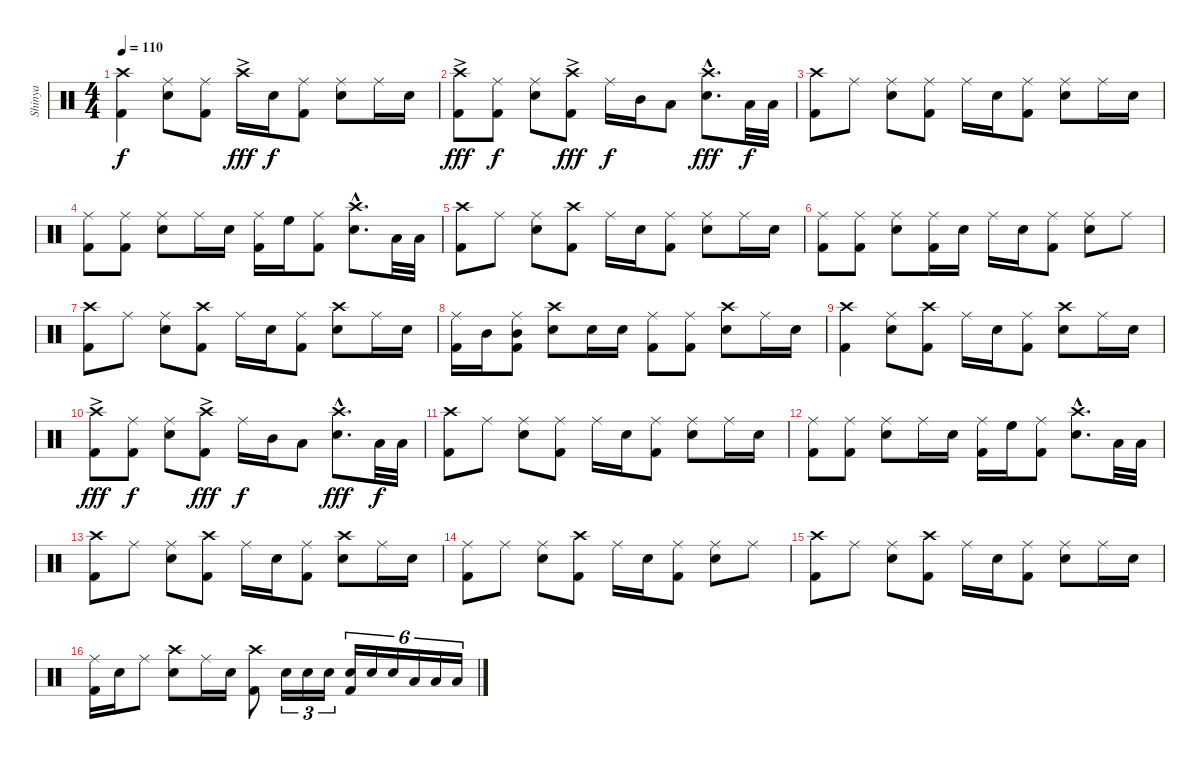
\track ("Shinya" "Shinya") {instrument percussion}
\staff {score}
\articulation defaults
\ts (4 4)
\tempo 110
\clef neutral
\ks c
("Crash high (hit)" "Kick (hit) 2").4{dy f} ("Ride (middle)" "Snare (hit) 2").8 ("Ride (middle)" "Kick (hit) 2").8 "Crash high (hit)"{ac}.16{dy fff} "Snare (hit) 2".16{dy f} ("Ride (middle)" "Kick (hit) 2").8 ("Ride (middle)" "Snare (hit) 2").8 "Ride (middle)".16 "Snare (hit) 2".16 |
("Crash high (hit)"{ac} "Kick (hit) 2").8{dy fff} ("Ride (middle)" "Kick (hit) 2").8{dy f} ("Ride (middle)" "Snare (hit) 2").8 ("Crash high (hit)"{ac} "Kick (hit) 2").8{dy fff} "Ride (middle)".16{dy f} "Mid Tom (hit)".16 "Low Tom (hit)".8 ("Crash high (hit)"{hac} "Snare (hit) 2"{hac}).8{d dy fff} "Low Tom (hit)".32{dy f} "Low Tom (hit)".32 |
("Crash high (hit)" "Kick (hit) 2").8 "Ride (middle)".8 ("Ride (middle)" "Snare (hit) 2").8 ("Ride (middle)" "Kick (hit) 2").8 "Ride (middle)".16 "Snare (hit) 2".16 ("Ride (middle)" "Kick (hit) 2").8 ("Ride (middle)" "Snare (hit) 2").8 "Ride (middle)".16 "Snare (hit) 2".16 |
("Ride (middle)" "Kick (hit) 2").8 ("Ride (middle)" "Kick (hit) 2").8 ("Ride (middle)" "Snare (hit) 2").8 "Ride (middle)".16 "Snare (hit) 2".16 ("Ride (middle)" "Kick (hit) 2").16 "High Floor Tom (hit)".16 ("Ride (middle)" "Kick (hit) 2").8 ("Crash high (hit)"{hac} "Snare (hit) 2"{hac}).8{d} "Low Tom (hit)".32 "Low Tom (hit)".32 |
("Crash high (hit)" "Kick (hit) 2").8 "Ride (middle)".8 ("Ride (middle)" "Snare (hit) 2").8 ("Crash high (hit)" "Kick (hit) 2").8 "Ride (middle)".16 "Snare (hit) 2".16 ("Ride (middle)" "Kick (hit) 2").8 ("Ride (middle)" "Snare (hit) 2").8 "Ride (middle)".16 "Snare (hit) 2".16 |
("Ride (middle)" "Kick (hit) 2").8 ("Ride (middle)" "Kick (hit) 2").8 ("Ride (middle)" "Snare (hit) 2").8 ("Ride (middle)" "Kick (hit) 2").16 "Snare (hit) 2".16 "Ride (middle)".16 "Snare (hit) 2".16 ("Ride (middle)" "Kick (hit) 2").8 ("Ride (middle)" "Snare (hit) 2").8 "Ride (middle)".8 |
("Crash high (hit)" "Kick (hit) 2").8 "Ride (middle)".8 ("Ride (middle)" "Snare (hit) 2").8 ("Crash high (hit)" "Kick (hit) 2").8 "Ride (middle)".16 "Snare (hit) 2".16 ("Ride (middle)" "Kick (hit) 2").8 ("Crash high (hit)" "Snare (hit) 2").8 "Ride (middle)".16 "Snare (hit) 2".16 |
("Ride (middle)" "Kick (hit) 2").16 "Mid Tom (hit)".16 ("Ride (middle)" "Mid Tom (hit)" "Kick (hit) 2").8 ("Crash high (hit)" "Snare (hit) 2").8 "Snare (hit) 2".16 "Snare (hit) 2".16 ("Ride (middle)" "Kick (hit) 2").8 ("Kick (hit) 2" "Ride (middle)").8 ("Snare (hit) 2" "Crash high (hit)").8 "Ride (middle)".16 "Snare (hit) 2".16 |
("Crash high (hit)" "Kick (hit) 2").4 ("Ride (middle)" "Snare (hit) 2").8 ("Crash high (hit)" "Kick (hit) 2").8 "Ride (middle)".16 "Snare (hit) 2".16 ("Ride (middle)" "Kick (hit) 2").8 ("Crash high (hit)" "Snare (hit) 2").8 "Ride (middle)".16 "Snare (hit) 2".16 |
("Crash high (hit)"{ac} "Kick (hit) 2").8{dy fff} ("Ride (middle)" "Kick (hit) 2").8{dy f} ("Ride (middle)" "Snare (hit) 2").8 ("Crash high (hit)"{ac} "Kick (hit) 2").8{dy fff} "Ride (middle)".16{dy f} "Mid Tom (hit)".16 "Low Tom (hit)".8 ("Crash high (hit)"{hac} "Snare (hit) 2"{hac}).8{d dy fff} "Low Tom (hit)".32{dy f} "Low Tom (hit)".32 |
("Crash high (hit)" "Kick (hit) 2").8 "Ride (middle)".8 ("Ride (middle)" "Snare (hit) 2").8 ("Ride (middle)" "Kick (hit) 2").8 "Ride (middle)".16 "Snare (hit) 2".16 ("Ride (middle)" "Kick (hit) 2").8 ("Ride (middle)" "Snare (hit) 2").8 "Ride (middle)".16 "Snare (hit) 2".16 |
("Ride (middle)" "Kick (hit) 2").8 ("Ride (middle)" "Kick (hit) 2").8 ("Ride (middle)" "Snare (hit) 2").8 "Ride (middle)".16 "Snare (hit) 2".16 ("Ride (middle)" "Kick (hit) 2").16 "High Floor Tom (hit)".16 ("Ride (middle)" "Kick (hit) 2").8 ("Crash high (hit)"{hac} "Snare (hit) 2"{hac}).8{d} "Low Tom (hit)".32 "Low Tom (hit)".32 |
("Crash high (hit)" "Kick (hit) 2").8 "Ride (middle)".8 ("Ride (middle)" "Snare (hit) 2").8 ("Crash high (hit)" "Kick (hit) 2").8 "Ride (middle)".16 "Snare (hit) 2".16 ("Ride (middle)" "Kick (hit) 2").8 ("Crash high (hit)" "Snare (hit) 2").8 "Ride (middle)".16 "Snare (hit) 2".16 |
("Ride (middle)" "Kick (hit) 2").8 "Ride (middle)".8 ("Ride (middle)" "Snare (hit) 2").8 ("Crash high (hit)" "Kick (hit) 2").8 "Ride (middle)".16 "Snare (hit) 2".16 ("Ride (middle)" "Kick (hit) 2").8 ("Ride (middle)" "Snare (hit) 2").8 "Ride (middle)".8 |
("Crash high (hit)" "Kick (hit) 2").8 "Ride (middle)".8 ("Ride (middle)" "Snare (hit) 2").8 ("Crash high (hit)" "Kick (hit) 2").8 "Ride (middle)".16 "Snare (hit) 2".16 ("Ride (middle)" "Kick (hit) 2").8 ("Ride (middle)" "Snare (hit) 2").8 "Ride (middle)".16 "Snare (hit) 2".16 |
("Ride (middle)" "Kick (hit) 2").16 "Snare (hit) 2".16 "Ride (middle)".8 ("Crash high (hit)" "Snare (hit) 2").8 "Ride (middle)".16 "Snare (hit) 2".16 ("Crash high (hit)" "Kick (hit) 2").8 "Snare (hit) 2".16{tu (3 2)} "Snare (hit) 2".16{tu (3 2)} "Snare (hit) 2".16{tu (3 2)} ("Snare (hit) 2" "Kick (hit) 2").16{tu (6 4)} "Snare (hit) 2".16{tu (6 4)} "Snare (hit) 2".16{tu (6 4)} "Low Tom (hit)".16{tu (6 4)} "Low Tom (hit)".16{tu (6 4)} "Low Tom (hit)".16{tu (6 4)}
